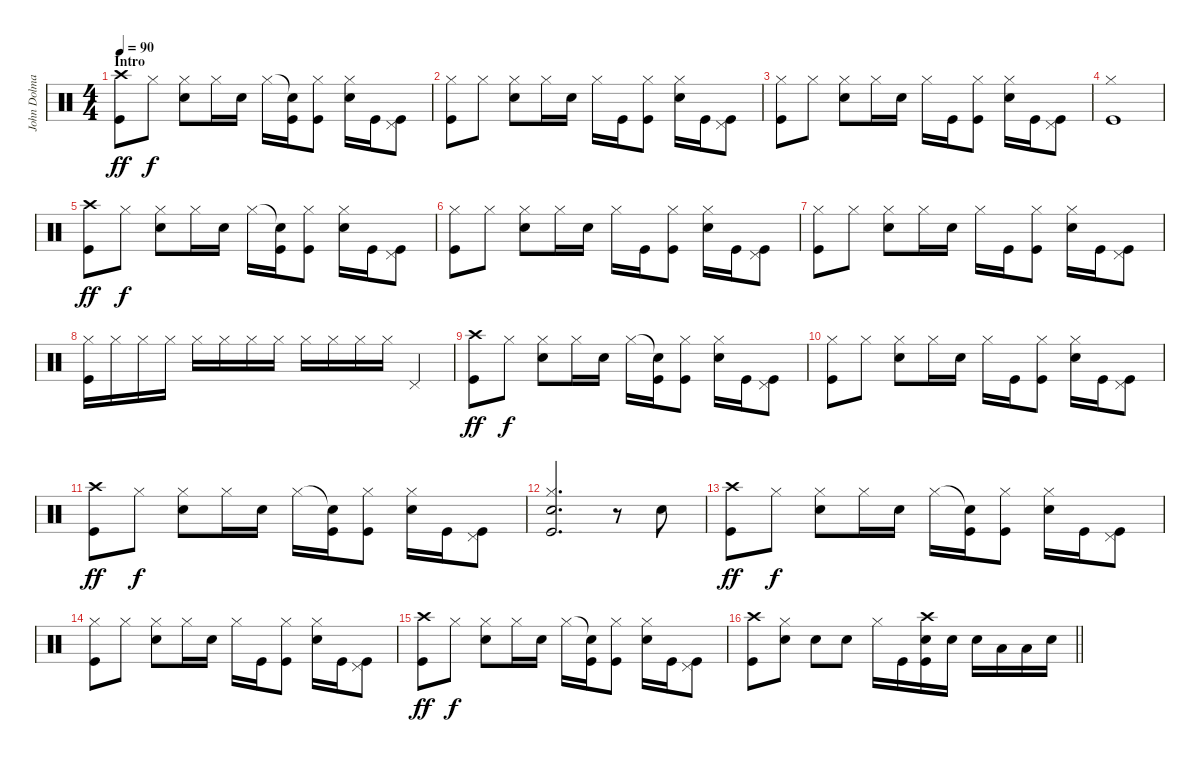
\track ("John Dolmayan " "John Dolma") {instrument percussion}
\staff {score}
\articulation defaults
\ts (4 4)
\section ("" "Intro")
\tempo 90
\clef neutral
\ks c
("Crash high (hit)" "Kick (hit)").8{dy ff} "Hi-Hat (closed)".8{dy f} ("Hi-Hat (closed)" "Snare (hit) 2").8 "Hi-Hat (closed)".16 "Snare (hit) 2".16 "Hi-Hat (closed)".16 ("Snare (hit)"{t} "Kick (hit)").16 ("Hi-Hat (closed)" "Kick (hit)").8 ("Hi-Hat (closed)" "Snare (hit) 2").16 "Kick (hit)".16 ("Pedal Hi-Hat (hit)" "Kick (hit)").8 |
("Hi-Hat (closed)" "Kick (hit)").8 "Hi-Hat (closed)".8 ("Hi-Hat (closed)" "Snare (hit) 2").8 "Hi-Hat (closed)".16 "Snare (hit) 2".16 "Hi-Hat (closed)".16 "Kick (hit)".16 ("Hi-Hat (closed)" "Kick (hit)").8 ("Hi-Hat (closed)" "Snare (hit) 2").16 "Kick (hit)".16 ("Pedal Hi-Hat (hit)" "Kick (hit)").8 |
("Hi-Hat (closed)" "Kick (hit)").8 "Hi-Hat (closed)".8 ("Hi-Hat (closed)" "Snare (hit) 2").8 "Hi-Hat (closed)".16 "Snare (hit) 2".16 "Hi-Hat (closed)".16 "Kick (hit)".16 ("Hi-Hat (closed)" "Kick (hit)").8 ("Hi-Hat (closed)" "Snare (hit) 2").16 "Kick (hit)".16 ("Pedal Hi-Hat (hit)" "Kick (hit)").8 |
("Hi-Hat (closed)" "Kick (hit)").1 |
("Crash high (hit)" "Kick (hit)").8{dy ff} "Hi-Hat (closed)".8{dy f} ("Hi-Hat (closed)" "Snare (hit) 2").8 "Hi-Hat (closed)".16 "Snare (hit) 2".16 "Hi-Hat (closed)".16 ("Snare (hit)"{t} "Kick (hit)").16 ("Hi-Hat (closed)" "Kick (hit)").8 ("Hi-Hat (closed)" "Snare (hit) 2").16 "Kick (hit)".16 ("Pedal Hi-Hat (hit)" "Kick (hit)").8 |
("Hi-Hat (closed)" "Kick (hit)").8 "Hi-Hat (closed)".8 ("Hi-Hat (closed)" "Snare (hit) 2").8 "Hi-Hat (closed)".16 "Snare (hit) 2".16 "Hi-Hat (closed)".16 "Kick (hit)".16 ("Hi-Hat (closed)" "Kick (hit)").8 ("Hi-Hat (closed)" "Snare (hit) 2").16 "Kick (hit)".16 ("Pedal Hi-Hat (hit)" "Kick (hit)").8 |
("Hi-Hat (closed)" "Kick (hit)").8 "Hi-Hat (closed)".8 ("Hi-Hat (closed)" "Snare (hit) 2").8 "Hi-Hat (closed)".16 "Snare (hit) 2".16 "Hi-Hat (closed)".16 "Kick (hit)".16 ("Hi-Hat (closed)" "Kick (hit)").8 ("Hi-Hat (closed)" "Snare (hit) 2").16 "Kick (hit)".16 ("Pedal Hi-Hat (hit)" "Kick (hit)").8 |
("Hi-Hat (closed)" "Kick (hit)").16 "Hi-Hat (closed)".16 "Hi-Hat (closed)".16 "Hi-Hat (closed)".16 "Hi-Hat (closed)".16 "Hi-Hat (closed)".16 "Hi-Hat (closed)".16 "Hi-Hat (closed)".16 "Hi-Hat (closed)".16 "Hi-Hat (closed)".16 "Hi-Hat (closed)".16 "Hi-Hat (closed)".16 "Pedal Hi-Hat (hit)".4 |
("Crash high (hit)" "Kick (hit)").8{dy ff} "Hi-Hat (closed)".8{dy f} ("Hi-Hat (closed)" "Snare (hit) 2").8 "Hi-Hat (closed)".16 "Snare (hit) 2".16 "Hi-Hat (closed)".16 ("Snare (hit)"{t} "Kick (hit)").16 ("Hi-Hat (closed)" "Kick (hit)").8 ("Hi-Hat (closed)" "Snare (hit) 2").16 "Kick (hit)".16 ("Pedal Hi-Hat (hit)" "Kick (hit)").8 |
("Hi-Hat (closed)" "Kick (hit)").8 "Hi-Hat (closed)".8 ("Hi-Hat (closed)" "Snare (hit) 2").8 "Hi-Hat (closed)".16 "Snare (hit) 2".16 "Hi-Hat (closed)".16 "Kick (hit)".16 ("Hi-Hat (closed)" "Kick (hit)").8 ("Hi-Hat (closed)" "Snare (hit) 2").16 "Kick (hit)".16 ("Pedal Hi-Hat (hit)" "Kick (hit)").8 |
("Crash high (hit)" "Kick (hit)").8{dy ff} "Hi-Hat (closed)".8{dy f} ("Hi-Hat (closed)" "Snare (hit) 2").8 "Hi-Hat (closed)".16 "Snare (hit) 2".16 "Hi-Hat (closed)".16 ("Snare (hit)"{t} "Kick (hit)").16 ("Hi-Hat (closed)" "Kick (hit)").8 ("Hi-Hat (closed)" "Snare (hit) 2").16 "Kick (hit)".16 ("Pedal Hi-Hat (hit)" "Kick (hit)").8 |
("Hi-Hat (closed)" "Snare (hit) 2" "Kick (hit)").2{d} r.8 "Snare (hit) 2".8 |
("Crash high (hit)" "Kick (hit)").8{dy ff} "Hi-Hat (closed)".8{dy f} ("Hi-Hat (closed)" "Snare (hit) 2").8 "Hi-Hat (closed)".16 "Snare (hit) 2".16 "Hi-Hat (closed)".16 ("Snare (hit)"{t} "Kick (hit)").16 ("Hi-Hat (closed)" "Kick (hit)").8 ("Hi-Hat (closed)" "Snare (hit) 2").16 "Kick (hit)".16 ("Pedal Hi-Hat (hit)" "Kick (hit)").8 |
("Hi-Hat (closed)" "Kick (hit)").8 "Hi-Hat (closed)".8 ("Hi-Hat (closed)" "Snare (hit) 2").8 "Hi-Hat (closed)".16 "Snare (hit) 2".16 "Hi-Hat (closed)".16 "Kick (hit)".16 ("Hi-Hat (closed)" "Kick (hit)").8 ("Hi-Hat (closed)" "Snare (hit) 2").16 "Kick (hit)".16 ("Pedal Hi-Hat (hit)" "Kick (hit)").8 |
("Crash high (hit)" "Kick (hit)").8{dy ff} "Hi-Hat (closed)".8{dy f} ("Hi-Hat (closed)" "Snare (hit) 2").8 "Hi-Hat (closed)".16 "Snare (hit) 2".16 "Hi-Hat (closed)".16 ("Snare (hit)"{t} "Kick (hit)").16 ("Hi-Hat (closed)" "Kick (hit)").8 ("Hi-Hat (closed)" "Snare (hit) 2").16 "Kick (hit)".16 ("Pedal Hi-Hat (hit)" "Kick (hit)").8 |
\barLineRight lightlight
("Crash high (hit)" "Kick (hit)").8 ("Hi-Hat (closed)" "Snare (hit) 2").8 "Snare (hit) 2".8 "Snare (hit) 2".8 "Hi-Hat (closed)".16 "Kick (hit)".16 ("Crash high (hit)" "Snare (hit) 2" "Kick (hit)").16 "Snare (hit) 2".16 "Snare (hit) 2".16 "Low Tom (hit)".16 "Low Tom (hit)".16 "Snare (hit) 2".16
